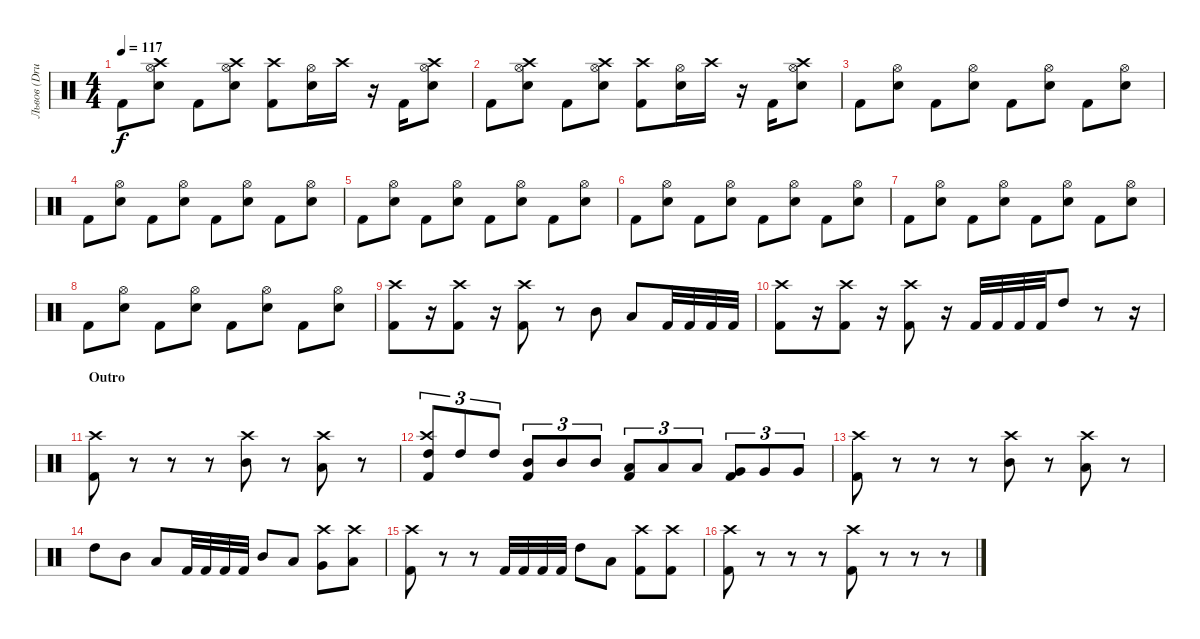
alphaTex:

\track ("Львов (Drums)" "Львов (Dru") {instrument percussion}
\staff {score}
\articulation defaults
\ts (4 4)
\tempo 117
\clef neutral
\ks c "Kick (hit) 2".8{dy f}
("Electric Snare (hit)" "Hi-Hat (open)" "Crash high (hit)").8 "Kick (hit) 2".8 ("Electric Snare (hit)" "Hi-Hat (open)" "Crash high (hit)").8 ("Kick (hit) 2" "Crash high (hit)").8 ("Electric Snare (hit)" "Hi-Hat (open)").16 "Crash high (hit)".16 r.16 "Kick (hit) 2".16 ("Electric Snare (hit)" "Hi-Hat (open)" "Crash high (hit)").8 |
"Kick (hit) 2".8 ("Electric Snare (hit)" "Hi-Hat (open)" "Crash high (hit)").8 "Kick (hit) 2".8 ("Electric Snare (hit)" "Hi-Hat (open)" "Crash high (hit)").8 ("Kick (hit) 2" "Crash high (hit)").8 ("Electric Snare (hit)" "Hi-Hat (open)").16 "Crash high (hit)".16 r.16 "Kick (hit) 2".16 ("Electric Snare (hit)" "Hi-Hat (open)" "Crash high (hit)").8 |
"Kick (hit) 2".8 ("Electric Snare (hit)" "Hi-Hat (open)").8 "Kick (hit) 2".8 ("Electric Snare (hit)" "Hi-Hat (open)").8 "Kick (hit) 2".8 ("Electric Snare (hit)" "Hi-Hat (open)").8 "Kick (hit) 2".8 ("Electric Snare (hit)" "Hi-Hat (open)").8 |
"Kick (hit) 2".8 ("Electric Snare (hit)" "Hi-Hat (open)").8 "Kick (hit) 2".8 ("Electric Snare (hit)" "Hi-Hat (open)").8 "Kick (hit) 2".8 ("Electric Snare (hit)" "Hi-Hat (open)").8 "Kick (hit) 2".8 ("Electric Snare (hit)" "Hi-Hat (open)").8 |
"Kick (hit) 2".8 ("Electric Snare (hit)" "Hi-Hat (open)").8 "Kick (hit) 2".8 ("Electric Snare (hit)" "Hi-Hat (open)").8 "Kick (hit) 2".8 ("Electric Snare (hit)" "Hi-Hat (open)").8 "Kick (hit) 2".8 ("Electric Snare (hit)" "Hi-Hat (open)").8 |
"Kick (hit) 2".8 ("Electric Snare (hit)" "Hi-Hat (open)").8 "Kick (hit) 2".8 ("Electric Snare (hit)" "Hi-Hat (open)").8 "Kick (hit) 2".8 ("Electric Snare (hit)" "Hi-Hat (open)").8 "Kick (hit) 2".8 ("Electric Snare (hit)" "Hi-Hat (open)").8 |
"Kick (hit) 2".8 ("Electric Snare (hit)" "Hi-Hat (open)").8 "Kick (hit) 2".8 ("Electric Snare (hit)" "Hi-Hat (open)").8 "Kick (hit) 2".8 ("Electric Snare (hit)" "Hi-Hat (open)").8 "Kick (hit) 2".8 ("Electric Snare (hit)" "Hi-Hat (open)").8 |
"Kick (hit) 2".8 ("Electric Snare (hit)" "Hi-Hat (open)").8 "Kick (hit) 2".8 ("Electric Snare (hit)" "Hi-Hat (open)").8 "Kick (hit) 2".8 ("Electric Snare (hit)" "Hi-Hat (open)").8 "Kick (hit) 2".8 ("Electric Snare (hit)" "Hi-Hat (open)").8 |
("Kick (hit) 2" "Crash high (hit)").8 r.16 ("Kick (hit) 2" "Crash high (hit)").8 r.16 ("Kick (hit) 2" "Crash high (hit)").8 r.8 "Mid Tom (hit)".8 "Low Tom (hit)".8 "Kick (hit) 2".32 "Kick (hit) 2".32 "Kick (hit) 2".32 "Kick (hit) 2".32 |
("Kick (hit) 2" "Crash high (hit)").8 r.16 ("Kick (hit) 2" "Crash high (hit)").8 r.16 ("Kick (hit) 2" "Crash high (hit)").8 r.16 "Kick (hit) 2".32 "Kick (hit) 2".32 "Kick (hit) 2".32 "Kick (hit) 2".32 "High Tom (hit)".8 r.8 r.16 |
\section ("" "Outro")
("Kick (hit) 2" "Crash high (hit)").8 r.8 r.8 r.8 ("Mid Tom (hit)" "Crash high (hit)").8 r.8 ("Low Tom (hit)" "Crash high (hit)").8 r.8 |
("High Tom (hit)" "Kick (hit) 2" "Crash high (hit)").8{tu (3 2)} "High Tom (hit)".8{tu (3 2)} "High Tom (hit)".8{tu (3 2)} ("Mid Tom (hit)" "Kick (hit) 2").8{tu (3 2)} "Mid Tom (hit)".8{tu (3 2)} "Mid Tom (hit)".8{tu (3 2)} ("Low Tom (hit)" "Kick (hit) 2").8{tu (3 2)} "Low Tom (hit)".8{tu (3 2)} "Low Tom (hit)".8{tu (3 2)} ("Very Low Tom (hit)" "Kick (hit) 2").8{tu (3 2)} "Very Low Tom (hit)".8{tu (3 2)} "Very Low Tom (hit)".8{tu (3 2)} |
("Kick (hit) 2" "Crash high (hit)").8 r.8 r.8 r.8 ("Mid Tom (hit)" "Crash high (hit)").8 r.8 ("Low Tom (hit)" "Crash high (hit)").8 r.8 |
"High Tom (hit)".8 "Mid Tom (hit)".8 "Low Tom (hit)".8 "Kick (hit) 2".32 "Kick (hit) 2".32 "Kick (hit) 2".32 "Kick (hit) 2".32 "Mid Tom (hit)".8 "Low Tom (hit)".8 ("Very Low Tom (hit)" "Crash high (hit)").8 ("Low Floor Tom (hit)" "Crash high (hit)").8 |
("Kick (hit) 2" "Crash high (hit)").8 r.8 r.8 "Kick (hit) 2".32 "Kick (hit) 2".32 "Kick (hit) 2".32 "Kick (hit) 2".32 "High Tom (hit)".8 "Low Tom (hit)".8 ("Crash high (hit)" "Kick (hit) 2").8 ("Crash high (hit)" "Kick (hit) 2").8 |
("Kick (hit) 2" "Crash high (hit)").8 r.8 r.8 r.8 ("Kick (hit) 2" "Crash high (hit)").8 r.8 r.8 r.8
